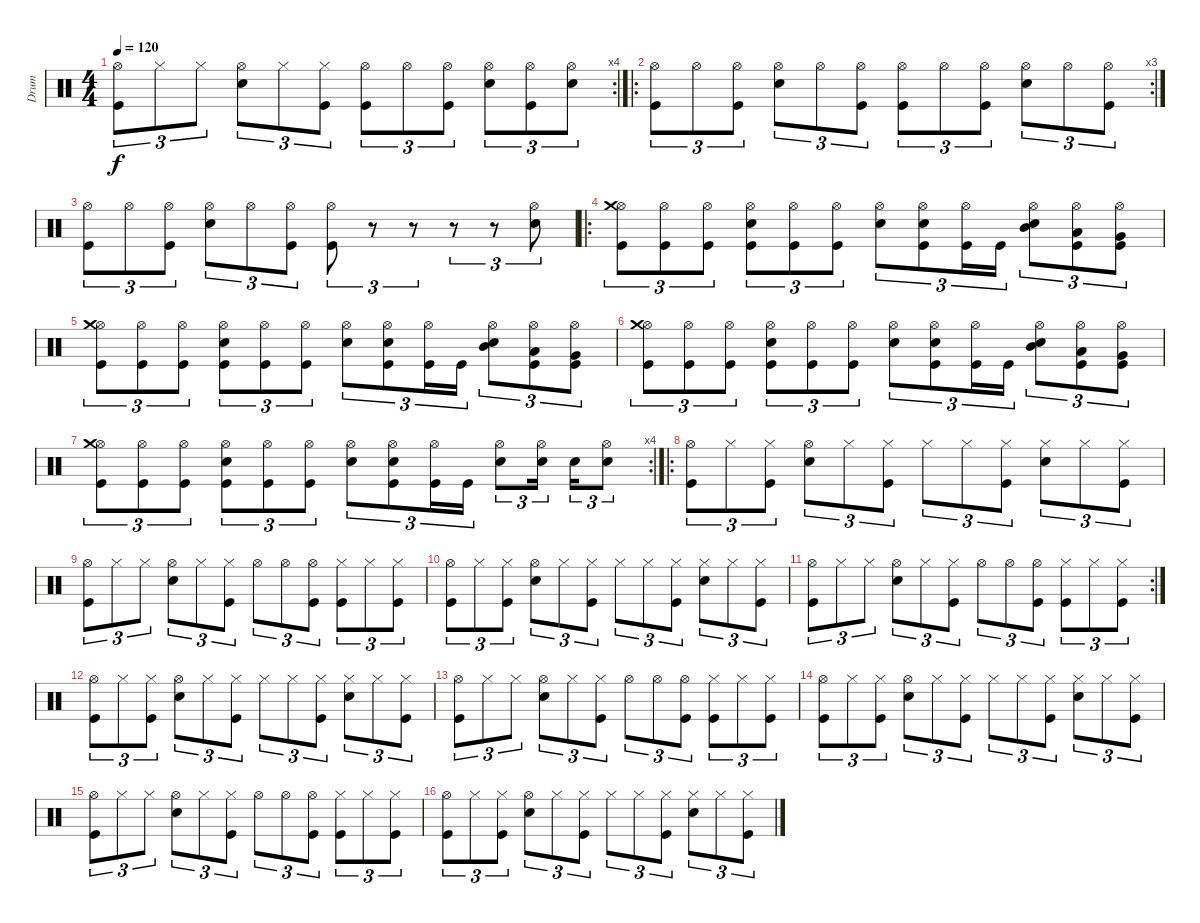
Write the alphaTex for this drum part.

\track ("Drum" "Drum") {instrument percussion}
\staff {score}
\articulation defaults
\rc 4
\ts (4 4)
\tempo 120
\clef neutral
\ks c
("Hi-Hat (open)" "Kick (hit)").8{tu (3 2) dy f} "Hi-Hat (closed)".8{tu (3 2)} "Hi-Hat (closed)".8{tu (3 2)} ("Hi-Hat (open)" "Electric Snare (hit)").8{tu (3 2)} "Hi-Hat (closed)".8{tu (3 2)} ("Hi-Hat (closed)" "Kick (hit)").8{tu (3 2)} ("Hi-Hat (open)" "Kick (hit)").8{tu (3 2)} "Hi-Hat (open)".8{tu (3 2)} ("Hi-Hat (open)" "Kick (hit)").8{tu (3 2)} ("Hi-Hat (open)" "Electric Snare (hit)").8{tu (3 2)} ("Hi-Hat (open)" "Kick (hit)").8{tu (3 2)} ("Hi-Hat (open)" "Electric Snare (hit)").8{tu (3 2)} |
\ro
\rc 3
("Hi-Hat (open)" "Kick (hit)").8{tu (3 2)} "Hi-Hat (open)".8{tu (3 2)} ("Hi-Hat (open)" "Kick (hit)").8{tu (3 2)} ("Hi-Hat (open)" "Electric Snare (hit)").8{tu (3 2)} "Hi-Hat (open)".8{tu (3 2)} ("Hi-Hat (open)" "Kick (hit)").8{tu (3 2)} ("Hi-Hat (open)" "Kick (hit)").8{tu (3 2)} "Hi-Hat (open)".8{tu (3 2)} ("Hi-Hat (open)" "Kick (hit)").8{tu (3 2)} ("Hi-Hat (open)" "Electric Snare (hit)").8{tu (3 2)} "Hi-Hat (open)".8{tu (3 2)} ("Hi-Hat (open)" "Kick (hit)").8{tu (3 2)} |
("Hi-Hat (open)" "Kick (hit)").8{tu (3 2)} "Hi-Hat (open)".8{tu (3 2)} ("Hi-Hat (open)" "Kick (hit)").8{tu (3 2)} ("Hi-Hat (open)" "Electric Snare (hit)").8{tu (3 2)} "Hi-Hat (open)".8{tu (3 2)} ("Hi-Hat (open)" "Kick (hit)").8{tu (3 2)} ("Hi-Hat (open)" "Kick (hit)").8{tu (3 2)} r.8{tu (3 2)} r.8{tu (3 2)} r.8{tu (3 2)} r.8{tu (3 2)} ("Hi-Hat (open)" "Electric Snare (hit)").8{tu (3 2)} |
\ro
("Hi-Hat (open)" "Crash medium (hit)" "Kick (hit)").8{tu (3 2)} ("Hi-Hat (open)" "Kick (hit)").8{tu (3 2)} ("Hi-Hat (open)" "Kick (hit)").8{tu (3 2)} ("Hi-Hat (open)" "Electric Snare (hit)" "Kick (hit)").8{tu (3 2)} ("Hi-Hat (open)" "Kick (hit)").8{tu (3 2)} ("Hi-Hat (open)" "Kick (hit)").8{tu (3 2)} ("Hi-Hat (open)" "Electric Snare (hit)").8{tu (3 2)} ("Hi-Hat (open)" "Electric Snare (hit)" "Kick (hit)").8{tu (3 2)} ("Hi-Hat (open)" "Kick (hit)").16{tu (3 2)} "Kick (hit)".16{tu (3 2)} ("Hi-Hat (open)" "Mid Tom (hit)" "Electric Snare (hit)").8{tu (3 2)} ("Hi-Hat (open)" "Low Tom (hit)" "Kick (hit)").8{tu (3 2)} ("Hi-Hat (open)" "Very Low Tom (hit)" "Kick (hit)").8{tu (3 2)} |
("Hi-Hat (open)" "Crash medium (hit)" "Kick (hit)").8{tu (3 2)} ("Hi-Hat (open)" "Kick (hit)").8{tu (3 2)} ("Hi-Hat (open)" "Kick (hit)").8{tu (3 2)} ("Hi-Hat (open)" "Electric Snare (hit)" "Kick (hit)").8{tu (3 2)} ("Hi-Hat (open)" "Kick (hit)").8{tu (3 2)} ("Hi-Hat (open)" "Kick (hit)").8{tu (3 2)} ("Hi-Hat (open)" "Electric Snare (hit)").8{tu (3 2)} ("Hi-Hat (open)" "Electric Snare (hit)" "Kick (hit)").8{tu (3 2)} ("Hi-Hat (open)" "Kick (hit)").16{tu (3 2)} "Kick (hit)".16{tu (3 2)} ("Hi-Hat (open)" "Mid Tom (hit)" "Electric Snare (hit)").8{tu (3 2)} ("Hi-Hat (open)" "Low Tom (hit)" "Kick (hit)").8{tu (3 2)} ("Hi-Hat (open)" "Very Low Tom (hit)" "Kick (hit)").8{tu (3 2)} |
("Hi-Hat (open)" "Crash medium (hit)" "Kick (hit)").8{tu (3 2)} ("Hi-Hat (open)" "Kick (hit)").8{tu (3 2)} ("Hi-Hat (open)" "Kick (hit)").8{tu (3 2)} ("Hi-Hat (open)" "Electric Snare (hit)" "Kick (hit)").8{tu (3 2)} ("Hi-Hat (open)" "Kick (hit)").8{tu (3 2)} ("Hi-Hat (open)" "Kick (hit)").8{tu (3 2)} ("Hi-Hat (open)" "Electric Snare (hit)").8{tu (3 2)} ("Hi-Hat (open)" "Electric Snare (hit)" "Kick (hit)").8{tu (3 2)} ("Hi-Hat (open)" "Kick (hit)").16{tu (3 2)} "Kick (hit)".16{tu (3 2)} ("Hi-Hat (open)" "Mid Tom (hit)" "Electric Snare (hit)").8{tu (3 2)} ("Hi-Hat (open)" "Low Tom (hit)" "Kick (hit)").8{tu (3 2)} ("Hi-Hat (open)" "Very Low Tom (hit)" "Kick (hit)").8{tu (3 2)} |
\rc 4
("Hi-Hat (open)" "Crash medium (hit)" "Kick (hit)").8{tu (3 2)} ("Hi-Hat (open)" "Kick (hit)").8{tu (3 2)} ("Hi-Hat (open)" "Kick (hit)").8{tu (3 2)} ("Hi-Hat (open)" "Electric Snare (hit)" "Kick (hit)").8{tu (3 2)} ("Hi-Hat (open)" "Kick (hit)").8{tu (3 2)} ("Hi-Hat (open)" "Kick (hit)").8{tu (3 2)} ("Hi-Hat (open)" "Electric Snare (hit)").8{tu (3 2)} ("Hi-Hat (open)" "Electric Snare (hit)" "Kick (hit)").8{tu (3 2)} ("Hi-Hat (open)" "Kick (hit)").16{tu (3 2)} "Kick (hit)".16{tu (3 2)} ("Hi-Hat (open)" "Electric Snare (hit)").8{tu (3 2)} ("Hi-Hat (open)" "Electric Snare (hit)").16{tu (3 2)} "Electric Snare (hit)".16{tu (3 2)} ("Hi-Hat (open)" "Electric Snare (hit)").8{tu (3 2)} |
\ro
("Hi-Hat (open)" "Kick (hit)").8{tu (3 2)} "Hi-Hat (closed)".8{tu (3 2)} ("Hi-Hat (closed)" "Kick (hit)").8{tu (3 2)} ("Hi-Hat (open)" "Electric Snare (hit)").8{tu (3 2)} "Hi-Hat (closed)".8{tu (3 2)} ("Hi-Hat (closed)" "Kick (hit)").8{tu (3 2)} "Hi-Hat (closed)".8{tu (3 2)} "Hi-Hat (closed)".8{tu (3 2)} ("Hi-Hat (closed)" "Kick (hit)").8{tu (3 2)} ("Hi-Hat (closed)" "Electric Snare (hit)").8{tu (3 2)} "Hi-Hat (closed)".8{tu (3 2)} ("Hi-Hat (closed)" "Kick (hit)").8{tu (3 2)} |
("Hi-Hat (open)" "Kick (hit)").8{tu (3 2)} "Hi-Hat (closed)".8{tu (3 2)} "Hi-Hat (closed)".8{tu (3 2)} ("Hi-Hat (open)" "Electric Snare (hit)").8{tu (3 2)} "Hi-Hat (closed)".8{tu (3 2)} ("Hi-Hat (closed)" "Kick (hit)").8{tu (3 2)} "Hi-Hat (open)".8{tu (3 2)} "Hi-Hat (open)".8{tu (3 2)} ("Hi-Hat (open)" "Kick (hit)").8{tu (3 2)} ("Hi-Hat (closed)" "Kick (hit)").8{tu (3 2)} "Hi-Hat (closed)".8{tu (3 2)} ("Hi-Hat (closed)" "Kick (hit)").8{tu (3 2)} |
("Hi-Hat (open)" "Kick (hit)").8{tu (3 2)} "Hi-Hat (closed)".8{tu (3 2)} ("Hi-Hat (closed)" "Kick (hit)").8{tu (3 2)} ("Hi-Hat (open)" "Electric Snare (hit)").8{tu (3 2)} "Hi-Hat (closed)".8{tu (3 2)} ("Hi-Hat (closed)" "Kick (hit)").8{tu (3 2)} "Hi-Hat (closed)".8{tu (3 2)} "Hi-Hat (closed)".8{tu (3 2)} ("Hi-Hat (closed)" "Kick (hit)").8{tu (3 2)} ("Hi-Hat (closed)" "Electric Snare (hit)").8{tu (3 2)} "Hi-Hat (closed)".8{tu (3 2)} ("Hi-Hat (closed)" "Kick (hit)").8{tu (3 2)} |
\rc 2
("Hi-Hat (open)" "Kick (hit)").8{tu (3 2)} "Hi-Hat (closed)".8{tu (3 2)} "Hi-Hat (closed)".8{tu (3 2)} ("Hi-Hat (open)" "Electric Snare (hit)").8{tu (3 2)} "Hi-Hat (closed)".8{tu (3 2)} ("Hi-Hat (closed)" "Kick (hit)").8{tu (3 2)} "Hi-Hat (open)".8{tu (3 2)} "Hi-Hat (open)".8{tu (3 2)} ("Hi-Hat (open)" "Kick (hit)").8{tu (3 2)} ("Hi-Hat (closed)" "Kick (hit)").8{tu (3 2)} "Hi-Hat (closed)".8{tu (3 2)} ("Hi-Hat (closed)" "Kick (hit)").8{tu (3 2)} |
("Hi-Hat (open)" "Kick (hit)").8{tu (3 2)} "Hi-Hat (closed)".8{tu (3 2)} ("Hi-Hat (closed)" "Kick (hit)").8{tu (3 2)} ("Hi-Hat (open)" "Electric Snare (hit)").8{tu (3 2)} "Hi-Hat (closed)".8{tu (3 2)} ("Hi-Hat (closed)" "Kick (hit)").8{tu (3 2)} "Hi-Hat (closed)".8{tu (3 2)} "Hi-Hat (closed)".8{tu (3 2)} ("Hi-Hat (closed)" "Kick (hit)").8{tu (3 2)} ("Hi-Hat (closed)" "Electric Snare (hit)").8{tu (3 2)} "Hi-Hat (closed)".8{tu (3 2)} ("Hi-Hat (closed)" "Kick (hit)").8{tu (3 2)} |
("Hi-Hat (open)" "Kick (hit)").8{tu (3 2)} "Hi-Hat (closed)".8{tu (3 2)} "Hi-Hat (closed)".8{tu (3 2)} ("Hi-Hat (open)" "Electric Snare (hit)").8{tu (3 2)} "Hi-Hat (closed)".8{tu (3 2)} ("Hi-Hat (closed)" "Kick (hit)").8{tu (3 2)} "Hi-Hat (open)".8{tu (3 2)} "Hi-Hat (open)".8{tu (3 2)} ("Hi-Hat (open)" "Kick (hit)").8{tu (3 2)} ("Hi-Hat (closed)" "Kick (hit)").8{tu (3 2)} "Hi-Hat (closed)".8{tu (3 2)} ("Hi-Hat (closed)" "Kick (hit)").8{tu (3 2)} |
("Hi-Hat (open)" "Kick (hit)").8{tu (3 2)} "Hi-Hat (closed)".8{tu (3 2)} ("Hi-Hat (closed)" "Kick (hit)").8{tu (3 2)} ("Hi-Hat (open)" "Electric Snare (hit)").8{tu (3 2)} "Hi-Hat (closed)".8{tu (3 2)} ("Hi-Hat (closed)" "Kick (hit)").8{tu (3 2)} "Hi-Hat (closed)".8{tu (3 2)} "Hi-Hat (closed)".8{tu (3 2)} ("Hi-Hat (closed)" "Kick (hit)").8{tu (3 2)} ("Hi-Hat (closed)" "Electric Snare (hit)").8{tu (3 2)} "Hi-Hat (closed)".8{tu (3 2)} ("Hi-Hat (closed)" "Kick (hit)").8{tu (3 2)} |
("Hi-Hat (open)" "Kick (hit)").8{tu (3 2)} "Hi-Hat (closed)".8{tu (3 2)} "Hi-Hat (closed)".8{tu (3 2)} ("Hi-Hat (open)" "Electric Snare (hit)").8{tu (3 2)} "Hi-Hat (closed)".8{tu (3 2)} ("Hi-Hat (closed)" "Kick (hit)").8{tu (3 2)} "Hi-Hat (open)".8{tu (3 2)} "Hi-Hat (open)".8{tu (3 2)} ("Hi-Hat (open)" "Kick (hit)").8{tu (3 2)} ("Hi-Hat (closed)" "Kick (hit)").8{tu (3 2)} "Hi-Hat (closed)".8{tu (3 2)} ("Hi-Hat (closed)" "Kick (hit)").8{tu (3 2)} |
("Hi-Hat (open)" "Kick (hit)").8{tu (3 2)} "Hi-Hat (closed)".8{tu (3 2)} ("Hi-Hat (closed)" "Kick (hit)").8{tu (3 2)} ("Hi-Hat (open)" "Electric Snare (hit)").8{tu (3 2)} "Hi-Hat (closed)".8{tu (3 2)} ("Hi-Hat (closed)" "Kick (hit)").8{tu (3 2)} "Hi-Hat (closed)".8{tu (3 2)} "Hi-Hat (closed)".8{tu (3 2)} ("Hi-Hat (closed)" "Kick (hit)").8{tu (3 2)} ("Hi-Hat (closed)" "Electric Snare (hit)").8{tu (3 2)} "Hi-Hat (closed)".8{tu (3 2)} ("Hi-Hat (closed)" "Kick (hit)").8{tu (3 2)}
